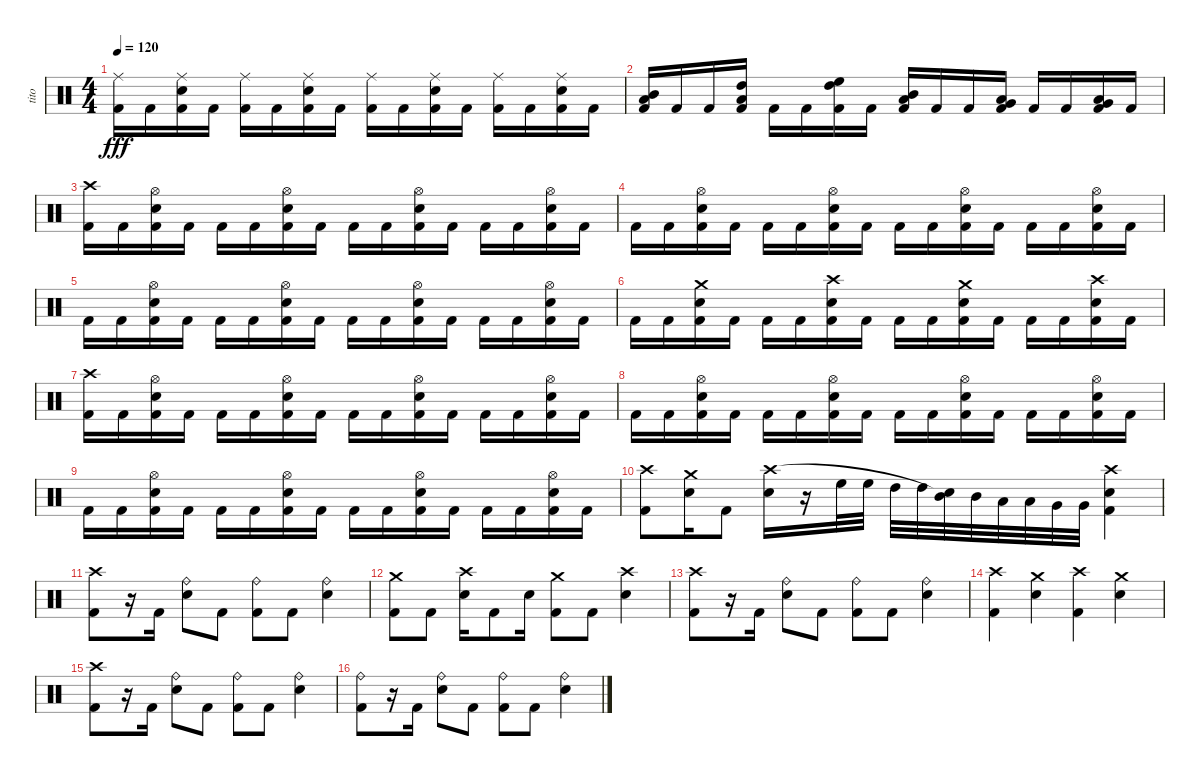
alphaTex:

\track ("tito" "tito") {instrument percussion}
\staff {score}
\articulation defaults
\ts (4 4)
\tempo 120
\clef neutral
\ks c
("Kick (hit) 2" "Ride (middle)").16{dy fff} "Kick (hit) 2".16 ("Kick (hit) 2" "Electric Snare (hit)" "Ride (middle)").16 "Kick (hit) 2".16 ("Kick (hit) 2" "Ride (middle)").16 "Kick (hit) 2".16 ("Kick (hit) 2" "Electric Snare (hit)" "Ride (middle)").16 "Kick (hit) 2".16 ("Kick (hit) 2" "Ride (middle)").16 "Kick (hit) 2".16 ("Kick (hit) 2" "Electric Snare (hit)" "Ride (middle)").16 "Kick (hit) 2".16 ("Kick (hit) 2" "Ride (middle)").16 "Kick (hit) 2".16 ("Kick (hit) 2" "Electric Snare (hit)" "Ride (middle)").16 "Kick (hit) 2".16 |
("Kick (hit) 2" "Mid Tom (hit)" "Low Tom (hit)").16 "Kick (hit) 2".16 "Kick (hit) 2".16 ("Kick (hit) 2" "High Tom (hit)" "Low Tom (hit)").16 "Kick (hit) 2".16 "Kick (hit) 2".16 ("Kick (hit) 2" "High Floor Tom (hit)" "High Tom (hit)").16 "Kick (hit) 2".16 ("Kick (hit) 2" "Mid Tom (hit)" "Low Tom (hit)").16 "Kick (hit) 2".16 "Kick (hit) 2".16 ("Kick (hit) 2" "Low Tom (hit)" "Very Low Tom (hit)").16 "Kick (hit) 2".16 "Kick (hit) 2".16 ("Kick (hit) 2" "Very Low Tom (hit)" "Low Floor Tom (hit)").16 "Kick (hit) 2".16 |
("Kick (hit) 2" "Crash high (hit)").16 "Kick (hit) 2".16 ("Kick (hit) 2" "Electric Snare (hit)" "Hi-Hat (open)").16 "Kick (hit) 2".16 "Kick (hit) 2".16 "Kick (hit) 2".16 ("Kick (hit) 2" "Electric Snare (hit)" "Hi-Hat (open)").16 "Kick (hit) 2".16 "Kick (hit) 2".16 "Kick (hit) 2".16 ("Kick (hit) 2" "Electric Snare (hit)" "Hi-Hat (open)").16 "Kick (hit) 2".16 "Kick (hit) 2".16 "Kick (hit) 2".16 ("Kick (hit) 2" "Electric Snare (hit)" "Hi-Hat (open)").16 "Kick (hit) 2".16 |
"Kick (hit) 2".16 "Kick (hit) 2".16 ("Kick (hit) 2" "Electric Snare (hit)" "Hi-Hat (open)").16 "Kick (hit) 2".16 "Kick (hit) 2".16 "Kick (hit) 2".16 ("Kick (hit) 2" "Electric Snare (hit)" "Hi-Hat (open)").16 "Kick (hit) 2".16 "Kick (hit) 2".16 "Kick (hit) 2".16 ("Kick (hit) 2" "Electric Snare (hit)" "Hi-Hat (open)").16 "Kick (hit) 2".16 "Kick (hit) 2".16 "Kick (hit) 2".16 ("Kick (hit) 2" "Electric Snare (hit)" "Hi-Hat (open)").16 "Kick (hit) 2".16 |
"Kick (hit) 2".16 "Kick (hit) 2".16 ("Kick (hit) 2" "Electric Snare (hit)" "Hi-Hat (open)").16 "Kick (hit) 2".16 "Kick (hit) 2".16 "Kick (hit) 2".16 ("Kick (hit) 2" "Electric Snare (hit)" "Hi-Hat (open)").16 "Kick (hit) 2".16 "Kick (hit) 2".16 "Kick (hit) 2".16 ("Kick (hit) 2" "Electric Snare (hit)" "Hi-Hat (open)").16 "Kick (hit) 2".16 "Kick (hit) 2".16 "Kick (hit) 2".16 ("Kick (hit) 2" "Electric Snare (hit)" "Hi-Hat (open)").16 "Kick (hit) 2".16 |
"Kick (hit) 2".16 "Kick (hit) 2".16 ("Kick (hit) 2" "Electric Snare (hit)" "Crash medium (hit)").16 "Kick (hit) 2".16 "Kick (hit) 2".16 "Kick (hit) 2".16 ("Kick (hit) 2" "Electric Snare (hit)" "Crash high (hit)").16 "Kick (hit) 2".16 "Kick (hit) 2".16 "Kick (hit) 2".16 ("Kick (hit) 2" "Electric Snare (hit)" "Crash medium (hit)").16 "Kick (hit) 2".16 "Kick (hit) 2".16 "Kick (hit) 2".16 ("Kick (hit) 2" "Electric Snare (hit)" "Crash high (hit)").16 "Kick (hit) 2".16 |
("Kick (hit) 2" "Crash high (hit)").16 "Kick (hit) 2".16 ("Kick (hit) 2" "Electric Snare (hit)" "Hi-Hat (open)").16 "Kick (hit) 2".16 "Kick (hit) 2".16 "Kick (hit) 2".16 ("Kick (hit) 2" "Electric Snare (hit)" "Hi-Hat (open)").16 "Kick (hit) 2".16 "Kick (hit) 2".16 "Kick (hit) 2".16 ("Kick (hit) 2" "Electric Snare (hit)" "Hi-Hat (open)").16 "Kick (hit) 2".16 "Kick (hit) 2".16 "Kick (hit) 2".16 ("Kick (hit) 2" "Electric Snare (hit)" "Hi-Hat (open)").16 "Kick (hit) 2".16 |
"Kick (hit) 2".16 "Kick (hit) 2".16 ("Kick (hit) 2" "Electric Snare (hit)" "Hi-Hat (open)").16 "Kick (hit) 2".16 "Kick (hit) 2".16 "Kick (hit) 2".16 ("Kick (hit) 2" "Electric Snare (hit)" "Hi-Hat (open)").16 "Kick (hit) 2".16 "Kick (hit) 2".16 "Kick (hit) 2".16 ("Kick (hit) 2" "Electric Snare (hit)" "Hi-Hat (open)").16 "Kick (hit) 2".16 "Kick (hit) 2".16 "Kick (hit) 2".16 ("Kick (hit) 2" "Electric Snare (hit)" "Hi-Hat (open)").16 "Kick (hit) 2".16 |
"Kick (hit) 2".16 "Kick (hit) 2".16 ("Kick (hit) 2" "Electric Snare (hit)" "Hi-Hat (open)").16 "Kick (hit) 2".16 "Kick (hit) 2".16 "Kick (hit) 2".16 ("Kick (hit) 2" "Electric Snare (hit)" "Hi-Hat (open)").16 "Kick (hit) 2".16 "Kick (hit) 2".16 "Kick (hit) 2".16 ("Kick (hit) 2" "Electric Snare (hit)" "Hi-Hat (open)").16 "Kick (hit) 2".16 "Kick (hit) 2".16 "Kick (hit) 2".16 ("Kick (hit) 2" "Electric Snare (hit)" "Hi-Hat (open)").16 "Kick (hit) 2".16 |
("Kick (hit) 2" "Crash high (hit)").8 ("Electric Snare (hit)" "Crash medium (hit)").16 "Kick (hit) 2".8 ("Electric Snare (hit)" "Crash high (hit)").16 r.16 "High Floor Tom (hit)".32 "High Floor Tom (hit)".32 "High Tom (hit)".32 "High Tom (hit)".32 ("Mid Tom (hit)" "Snare (hit)"{t}).32 "Mid Tom (hit)".32 "Low Tom (hit)".32 "Low Tom (hit)".32 "Very Low Tom (hit)".32 "Very Low Tom (hit)".32 ("Kick (hit) 2" "Electric Snare (hit)" "Crash high (hit)").4 |
("Kick (hit) 2" "Crash high (hit)").8 r.16 "Kick (hit) 2".16 ("Electric Snare (hit)" "Ride (bell)").8 "Kick (hit) 2".8 ("Kick (hit) 2" "Ride (bell)").8 "Kick (hit) 2".8 ("Electric Snare (hit)" "Ride (bell)").4 |
("Kick (hit) 2" "Crash medium (hit)").8 "Kick (hit) 2".8 ("Electric Snare (hit)" "Crash high (hit)").16 "Kick (hit) 2".8 "Electric Snare (hit)".16 ("Kick (hit) 2" "Crash medium (hit)").8 "Kick (hit) 2".8 ("Electric Snare (hit)" "Crash high (hit)").4 |
("Kick (hit) 2" "Crash high (hit)").8 r.16 "Kick (hit) 2".16 ("Electric Snare (hit)" "Ride (bell)").8 "Kick (hit) 2".8 ("Kick (hit) 2" "Ride (bell)").8 "Kick (hit) 2".8 ("Electric Snare (hit)" "Ride (bell)").4 |
("Kick (hit) 2" "Crash high (hit)").4 ("Electric Snare (hit)" "Crash medium (hit)").4 ("Kick (hit) 2" "Crash high (hit)").4 ("Electric Snare (hit)" "Crash medium (hit)").4 |
("Kick (hit) 2" "Crash high (hit)").8 r.16 "Kick (hit) 2".16 ("Electric Snare (hit)" "Ride (bell)").8 "Kick (hit) 2".8 ("Kick (hit) 2" "Ride (bell)").8 "Kick (hit) 2".8 ("Electric Snare (hit)" "Ride (bell)").4 |
("Kick (hit) 2" "Ride (bell)").8 r.16 "Kick (hit) 2".16 ("Electric Snare (hit)" "Ride (bell)").8 "Kick (hit) 2".8 ("Kick (hit) 2" "Ride (bell)").8 "Kick (hit) 2".8 ("Electric Snare (hit)" "Ride (bell)").4
